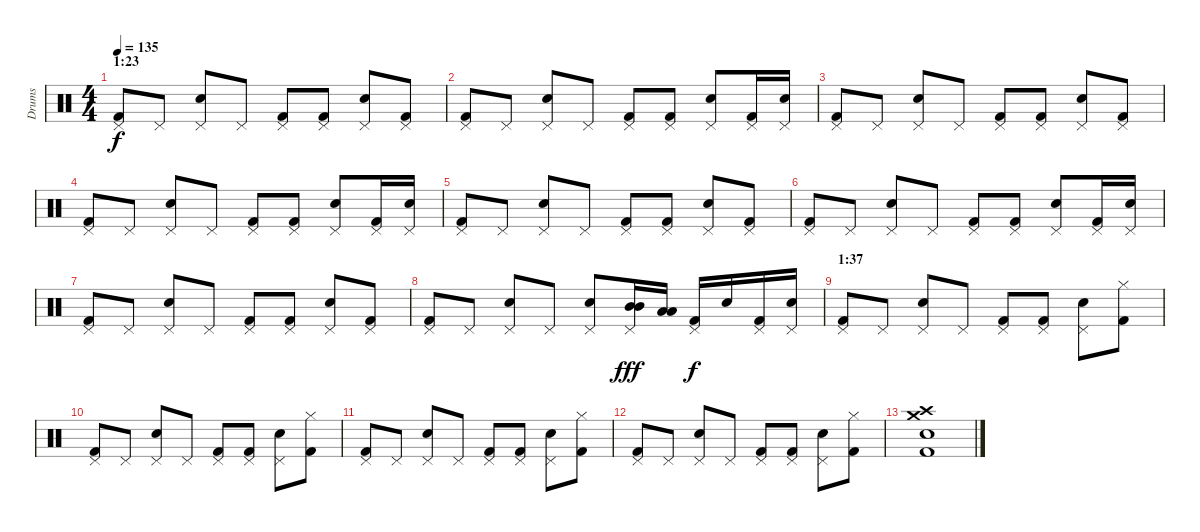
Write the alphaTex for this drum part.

\track ("Drums" "Drums") {instrument percussion}
\staff {score}
\articulation defaults
\ts (4 4)
\section ("" "1:23")
\tempo 135
\clef neutral
\ks c
("Pedal Hi-Hat (hit)" "Kick (hit) 2").8{dy f} "Pedal Hi-Hat (hit)".8 ("Pedal Hi-Hat (hit)" "Snare (hit) 2").8 "Pedal Hi-Hat (hit)".8 ("Pedal Hi-Hat (hit)" "Kick (hit) 2").8 ("Pedal Hi-Hat (hit)" "Kick (hit) 2").8 ("Pedal Hi-Hat (hit)" "Snare (hit) 2").8 ("Pedal Hi-Hat (hit)" "Kick (hit) 2").8 |
("Pedal Hi-Hat (hit)" "Kick (hit) 2").8 "Pedal Hi-Hat (hit)".8 ("Pedal Hi-Hat (hit)" "Snare (hit) 2").8 "Pedal Hi-Hat (hit)".8 ("Pedal Hi-Hat (hit)" "Kick (hit) 2").8 ("Pedal Hi-Hat (hit)" "Kick (hit) 2").8 ("Pedal Hi-Hat (hit)" "Snare (hit) 2").8 ("Pedal Hi-Hat (hit)" "Kick (hit) 2").16 ("Pedal Hi-Hat (hit)" "Snare (hit) 2").16 |
("Pedal Hi-Hat (hit)" "Kick (hit) 2").8 "Pedal Hi-Hat (hit)".8 ("Pedal Hi-Hat (hit)" "Snare (hit) 2").8 "Pedal Hi-Hat (hit)".8 ("Pedal Hi-Hat (hit)" "Kick (hit) 2").8 ("Pedal Hi-Hat (hit)" "Kick (hit) 2").8 ("Pedal Hi-Hat (hit)" "Snare (hit) 2").8 ("Pedal Hi-Hat (hit)" "Kick (hit) 2").8 |
("Pedal Hi-Hat (hit)" "Kick (hit) 2").8 "Pedal Hi-Hat (hit)".8 ("Pedal Hi-Hat (hit)" "Snare (hit) 2").8 "Pedal Hi-Hat (hit)".8 ("Pedal Hi-Hat (hit)" "Kick (hit) 2").8 ("Pedal Hi-Hat (hit)" "Kick (hit) 2").8 ("Pedal Hi-Hat (hit)" "Snare (hit) 2").8 ("Pedal Hi-Hat (hit)" "Kick (hit) 2").16 ("Pedal Hi-Hat (hit)" "Snare (hit) 2").16 |
("Pedal Hi-Hat (hit)" "Kick (hit) 2").8 "Pedal Hi-Hat (hit)".8 ("Pedal Hi-Hat (hit)" "Snare (hit) 2").8 "Pedal Hi-Hat (hit)".8 ("Pedal Hi-Hat (hit)" "Kick (hit) 2").8 ("Pedal Hi-Hat (hit)" "Kick (hit) 2").8 ("Pedal Hi-Hat (hit)" "Snare (hit) 2").8 ("Pedal Hi-Hat (hit)" "Kick (hit) 2").8 |
("Pedal Hi-Hat (hit)" "Kick (hit) 2").8 "Pedal Hi-Hat (hit)".8 ("Pedal Hi-Hat (hit)" "Snare (hit) 2").8 "Pedal Hi-Hat (hit)".8 ("Pedal Hi-Hat (hit)" "Kick (hit) 2").8 ("Pedal Hi-Hat (hit)" "Kick (hit) 2").8 ("Pedal Hi-Hat (hit)" "Snare (hit) 2").8 ("Pedal Hi-Hat (hit)" "Kick (hit) 2").16 ("Pedal Hi-Hat (hit)" "Snare (hit) 2").16 |
("Pedal Hi-Hat (hit)" "Kick (hit) 2").8 "Pedal Hi-Hat (hit)".8 ("Pedal Hi-Hat (hit)" "Snare (hit) 2").8 "Pedal Hi-Hat (hit)".8 ("Pedal Hi-Hat (hit)" "Kick (hit) 2").8 ("Pedal Hi-Hat (hit)" "Kick (hit) 2").8 ("Pedal Hi-Hat (hit)" "Snare (hit) 2").8 ("Pedal Hi-Hat (hit)" "Kick (hit) 2").8 |
("Pedal Hi-Hat (hit)" "Kick (hit) 2").8 "Pedal Hi-Hat (hit)".8 ("Pedal Hi-Hat (hit)" "Snare (hit) 2").8 "Pedal Hi-Hat (hit)".8 ("Pedal Hi-Hat (hit)" "Snare (hit) 2").8 ("Pedal Hi-Hat (hit)" "Mid Tom (hit)" "Mid Tom (hit)").16{dy fff} ("Low Tom (hit)" "Low Tom (hit)").16 ("Pedal Hi-Hat (hit)" "Kick (hit) 2").16{dy f} "Snare (hit) 2".16 ("Pedal Hi-Hat (hit)" "Kick (hit) 2").16 ("Pedal Hi-Hat (hit)" "Snare (hit) 2").16 |
\section ("" "1:37")
("Pedal Hi-Hat (hit)" "Kick (hit) 2").8 "Pedal Hi-Hat (hit)".8 ("Pedal Hi-Hat (hit)" "Snare (hit) 2").8 "Pedal Hi-Hat (hit)".8 ("Pedal Hi-Hat (hit)" "Kick (hit) 2").8 ("Pedal Hi-Hat (hit)" "Kick (hit) 2").8 ("Pedal Hi-Hat (hit)" "Snare (hit) 2").8 ("Hi-Hat (closed)" "Kick (hit) 2").8 |
("Pedal Hi-Hat (hit)" "Kick (hit) 2").8 "Pedal Hi-Hat (hit)".8 ("Pedal Hi-Hat (hit)" "Snare (hit) 2").8 "Pedal Hi-Hat (hit)".8 ("Pedal Hi-Hat (hit)" "Kick (hit) 2").8 ("Pedal Hi-Hat (hit)" "Kick (hit) 2").8 ("Pedal Hi-Hat (hit)" "Snare (hit) 2").8 ("Hi-Hat (closed)" "Kick (hit) 2").8 |
("Pedal Hi-Hat (hit)" "Kick (hit) 2").8 "Pedal Hi-Hat (hit)".8 ("Pedal Hi-Hat (hit)" "Snare (hit) 2").8 "Pedal Hi-Hat (hit)".8 ("Pedal Hi-Hat (hit)" "Kick (hit) 2").8 ("Pedal Hi-Hat (hit)" "Kick (hit) 2").8 ("Pedal Hi-Hat (hit)" "Snare (hit) 2").8 ("Hi-Hat (closed)" "Kick (hit) 2").8 |
("Pedal Hi-Hat (hit)" "Kick (hit) 2").8 "Pedal Hi-Hat (hit)".8 ("Pedal Hi-Hat (hit)" "Snare (hit) 2").8 "Pedal Hi-Hat (hit)".8 ("Pedal Hi-Hat (hit)" "Kick (hit) 2").8 ("Pedal Hi-Hat (hit)" "Kick (hit) 2").8 ("Pedal Hi-Hat (hit)" "Snare (hit) 2").8 ("Hi-Hat (closed)" "Kick (hit) 2").8 |
("Crash high (hit)" "Crash medium (hit)" "Snare (hit) 2" "Kick (hit) 2").1
